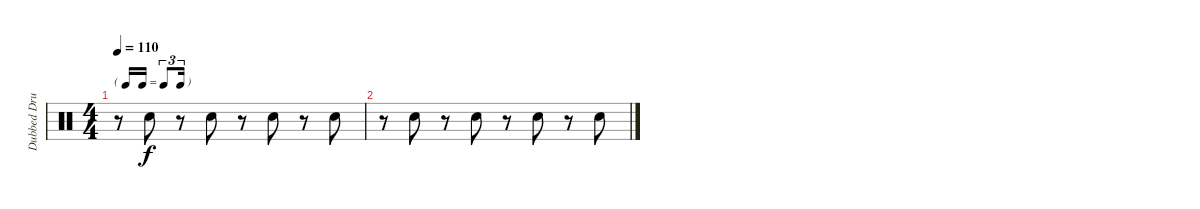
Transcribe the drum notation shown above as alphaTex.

\track ("Dubbed Drums - Zac" "Dubbed Dru") {instrument percussion}
\staff {score}
\articulation defaults
\ts (4 4)
\tf triplet16th
\tempo 110
\clef neutral
\ks c
r.8{dy f} "Hand Clap (hit)".8 r.8 "Hand Clap (hit)".8 r.8 "Hand Clap (hit)".8 r.8 "Hand Clap (hit)".8 |
r.8 "Hand Clap (hit)".8 r.8 "Hand Clap (hit)".8 r.8 "Hand Clap (hit)".8 r.8 "Hand Clap (hit)".8
